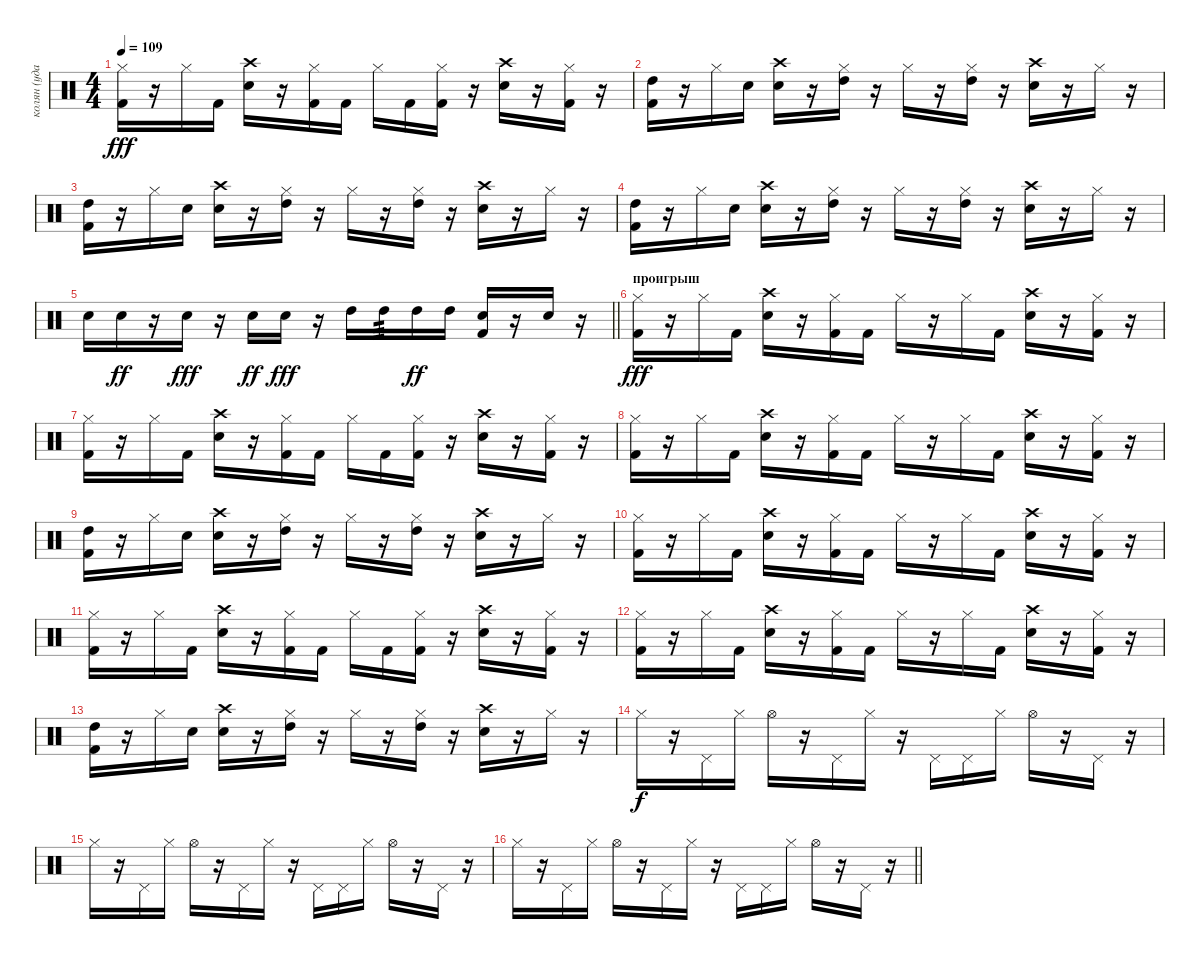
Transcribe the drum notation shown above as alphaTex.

\track ("колян (ударные) v2.0" "колян (уда") {instrument percussion}
\staff
\articulation defaults
\ts (4 4)
\tempo 109
\clef neutral
\ks c
("Hi-Hat (closed)" "Kick (hit) 2").16{dy fff} r.16 "Hi-Hat (closed)".16 "Kick (hit) 2".16 ("Snare (hit) 2" "Crash high (hit)").16 r.16 ("Hi-Hat (closed)" "Kick (hit) 2").16 "Kick (hit) 2".16 "Hi-Hat (closed)".16 "Kick (hit) 2".16 ("Hi-Hat (closed)" "Kick (hit) 2").16 r.16 ("Snare (hit) 2" "Crash high (hit)").16 r.16 ("Hi-Hat (closed)" "Kick (hit) 2").16 r.16 |
("High Tom (hit)" "Kick (hit) 2").16 r.16 "Hi-Hat (closed)".16 "Electric Snare (hit)".16 ("Electric Snare (hit)" "Crash high (hit)").16 r.16 ("Hi-Hat (closed)" "High Tom (hit)").16 r.16 "Hi-Hat (closed)".16 r.16 ("Hi-Hat (closed)" "High Tom (hit)").16 r.16 ("Electric Snare (hit)" "Crash high (hit)").16 r.16 "Hi-Hat (closed)".16 r.16 |
("High Tom (hit)" "Kick (hit) 2").16 r.16 "Hi-Hat (closed)".16 "Electric Snare (hit)".16 ("Electric Snare (hit)" "Crash high (hit)").16 r.16 ("Hi-Hat (closed)" "High Tom (hit)").16 r.16 "Hi-Hat (closed)".16 r.16 ("Hi-Hat (closed)" "High Tom (hit)").16 r.16 ("Electric Snare (hit)" "Crash high (hit)").16 r.16 "Hi-Hat (closed)".16 r.16 |
("High Tom (hit)" "Kick (hit) 2").16 r.16 "Hi-Hat (closed)".16 "Electric Snare (hit)".16 ("Electric Snare (hit)" "Crash high (hit)").16 r.16 ("Hi-Hat (closed)" "High Tom (hit)").16 r.16 "Hi-Hat (closed)".16 r.16 ("Hi-Hat (closed)" "High Tom (hit)").16 r.16 ("Electric Snare (hit)" "Crash high (hit)").16 r.16 "Hi-Hat (closed)".16 r.16 |
\barLineRight lightlight "Electric Snare (hit)".16 "Electric Snare (hit)".16{dy ff}
r.16 "Electric Snare (hit)".16{dy fff} r.16 "Electric Snare (hit)".16{dy ff} "Electric Snare (hit)".16{dy fff} r.16 "High Tom (hit)".16 "High Tom (hit)".16{tp 3} "High Tom (hit)".16{dy ff} "High Tom (hit)".16 ("Snare (hit) 2" "Kick (hit) 2").16 r.16 "Electric Snare (hit)".16 r.16 |
\section ("" "проигрыш")
("Hi-Hat (closed)" "Kick (hit) 2").16{dy fff} r.16 "Hi-Hat (closed)".16 "Kick (hit) 2".16 ("Snare (hit) 2" "Crash high (hit)").16 r.16 ("Hi-Hat (closed)" "Kick (hit) 2").16 "Kick (hit) 2".16 "Hi-Hat (closed)".16 r.16 "Hi-Hat (closed)".16 "Kick (hit) 2".16 ("Snare (hit) 2" "Crash high (hit)").16 r.16 ("Hi-Hat (closed)" "Kick (hit) 2").16 r.16 |
("Hi-Hat (closed)" "Kick (hit) 2").16 r.16 "Hi-Hat (closed)".16 "Kick (hit) 2".16 ("Snare (hit) 2" "Crash high (hit)").16 r.16 ("Hi-Hat (closed)" "Kick (hit) 2").16 "Kick (hit) 2".16 "Hi-Hat (closed)".16 "Kick (hit) 2".16 ("Hi-Hat (closed)" "Kick (hit) 2").16 r.16 ("Snare (hit) 2" "Crash high (hit)").16 r.16 ("Hi-Hat (closed)" "Kick (hit) 2").16 r.16 |
("Hi-Hat (closed)" "Kick (hit) 2").16 r.16 "Hi-Hat (closed)".16 "Kick (hit) 2".16 ("Snare (hit) 2" "Crash high (hit)").16 r.16 ("Hi-Hat (closed)" "Kick (hit) 2").16 "Kick (hit) 2".16 "Hi-Hat (closed)".16 r.16 "Hi-Hat (closed)".16 "Kick (hit) 2".16 ("Snare (hit) 2" "Crash high (hit)").16 r.16 ("Hi-Hat (closed)" "Kick (hit) 2").16 r.16 |
("High Tom (hit)" "Kick (hit) 2").16 r.16 "Hi-Hat (closed)".16 "Electric Snare (hit)".16 ("Electric Snare (hit)" "Crash high (hit)").16 r.16 ("Hi-Hat (closed)" "High Tom (hit)").16 r.16 "Hi-Hat (closed)".16 r.16 ("Hi-Hat (closed)" "High Tom (hit)").16 r.16 ("Electric Snare (hit)" "Crash high (hit)").16 r.16 "Hi-Hat (closed)".16 r.16 |
("Hi-Hat (closed)" "Kick (hit) 2").16 r.16 "Hi-Hat (closed)".16 "Kick (hit) 2".16 ("Snare (hit) 2" "Crash high (hit)").16 r.16 ("Hi-Hat (closed)" "Kick (hit) 2").16 "Kick (hit) 2".16 "Hi-Hat (closed)".16 r.16 "Hi-Hat (closed)".16 "Kick (hit) 2".16 ("Snare (hit) 2" "Crash high (hit)").16 r.16 ("Hi-Hat (closed)" "Kick (hit) 2").16 r.16 |
("Hi-Hat (closed)" "Kick (hit) 2").16 r.16 "Hi-Hat (closed)".16 "Kick (hit) 2".16 ("Snare (hit) 2" "Crash high (hit)").16 r.16 ("Hi-Hat (closed)" "Kick (hit) 2").16 "Kick (hit) 2".16 "Hi-Hat (closed)".16 "Kick (hit) 2".16 ("Hi-Hat (closed)" "Kick (hit) 2").16 r.16 ("Snare (hit) 2" "Crash high (hit)").16 r.16 ("Hi-Hat (closed)" "Kick (hit) 2").16 r.16 |
("Hi-Hat (closed)" "Kick (hit) 2").16 r.16 "Hi-Hat (closed)".16 "Kick (hit) 2".16 ("Snare (hit) 2" "Crash high (hit)").16 r.16 ("Hi-Hat (closed)" "Kick (hit) 2").16 "Kick (hit) 2".16 "Hi-Hat (closed)".16 r.16 "Hi-Hat (closed)".16 "Kick (hit) 2".16 ("Snare (hit) 2" "Crash high (hit)").16 r.16 ("Hi-Hat (closed)" "Kick (hit) 2").16 r.16 |
("High Tom (hit)" "Kick (hit) 2").16 r.16 "Hi-Hat (closed)".16 "Electric Snare (hit)".16 ("Electric Snare (hit)" "Crash high (hit)").16 r.16 ("Hi-Hat (closed)" "High Tom (hit)").16 r.16 "Hi-Hat (closed)".16 r.16 ("Hi-Hat (closed)" "High Tom (hit)").16 r.16 ("Electric Snare (hit)" "Crash high (hit)").16 r.16 "Hi-Hat (closed)".16 r.16 |
"Hi-Hat (closed)".16{dy f} r.16 "Pedal Hi-Hat (hit)".16 "Hi-Hat (closed)".16 "Hi-Hat (open)".16 r.16 "Pedal Hi-Hat (hit)".16 "Hi-Hat (closed)".16 r.16 "Pedal Hi-Hat (hit)".16 "Pedal Hi-Hat (hit)".16 "Hi-Hat (closed)".16 "Hi-Hat (open)".16 r.16 "Pedal Hi-Hat (hit)".16 r.16 |
"Hi-Hat (closed)".16 r.16 "Pedal Hi-Hat (hit)".16 "Hi-Hat (closed)".16 "Hi-Hat (open)".16 r.16 "Pedal Hi-Hat (hit)".16 "Hi-Hat (closed)".16 r.16 "Pedal Hi-Hat (hit)".16 "Pedal Hi-Hat (hit)".16 "Hi-Hat (closed)".16 "Hi-Hat (open)".16 r.16 "Pedal Hi-Hat (hit)".16 r.16 |
\barLineRight lightlight "Hi-Hat (closed)".16
r.16 "Pedal Hi-Hat (hit)".16 "Hi-Hat (closed)".16 "Hi-Hat (open)".16 r.16 "Pedal Hi-Hat (hit)".16 "Hi-Hat (closed)".16 r.16 "Pedal Hi-Hat (hit)".16 "Pedal Hi-Hat (hit)".16 "Hi-Hat (closed)".16 "Hi-Hat (open)".16 r.16 "Pedal Hi-Hat (hit)".16 r.16
